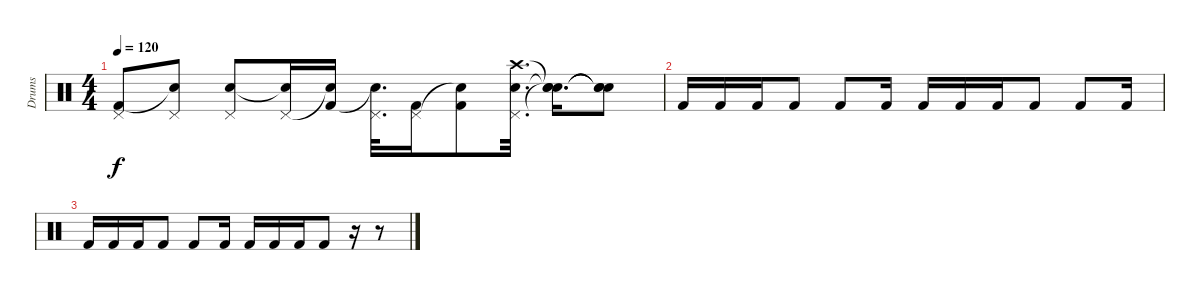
\track ("Drums" "Drums") {instrument percussion}
\staff {score}
\articulation defaults
\ts (4 4)
\tempo 120
\clef neutral
\ks c
("Pedal Hi-Hat (hit)" "Kick (hit) 2").8{dy f} ("Pedal Hi-Hat (hit)" "Snare (hit)"{t}).8 ("Pedal Hi-Hat (hit)" "Snare (hit) 2").8 ("Pedal Hi-Hat (hit)" "Snare (hit)"{t}).16 ("Snare (hit)"{t} "Kick (hit) 2").16 ("Pedal Hi-Hat (hit)" "Snare (hit)"{t}).32{d} ("Pedal Hi-Hat (hit)" "Kick (hit) 2").16 ("Snare (hit)"{t} "Kick (hit) 2").8 ("Pedal Hi-Hat (hit)" "Crash high (hit)" "Snare (hit) 2").32{d} ("Snare (hit)"{t} "Snare (hit)"{t} "Snare (hit)"{t}).16{d} ("Snare (hit)"{t} "Snare (hit)"{t} "Snare (hit)"{t}).8 |
"Kick (hit) 2".16 "Kick (hit) 2".16 "Kick (hit) 2".16 "Kick (hit) 2".8 "Kick (hit) 2".8 "Kick (hit) 2".16 "Kick (hit) 2".16 "Kick (hit) 2".16 "Kick (hit) 2".16 "Kick (hit) 2".8 "Kick (hit) 2".8 "Kick (hit) 2".16 |
"Kick (hit) 2".16 "Kick (hit) 2".16 "Kick (hit) 2".16 "Kick (hit) 2".8 "Kick (hit) 2".8 "Kick (hit) 2".16 "Kick (hit) 2".16 "Kick (hit) 2".16 "Kick (hit) 2".16 "Kick (hit) 2".8 r.16 r.8
